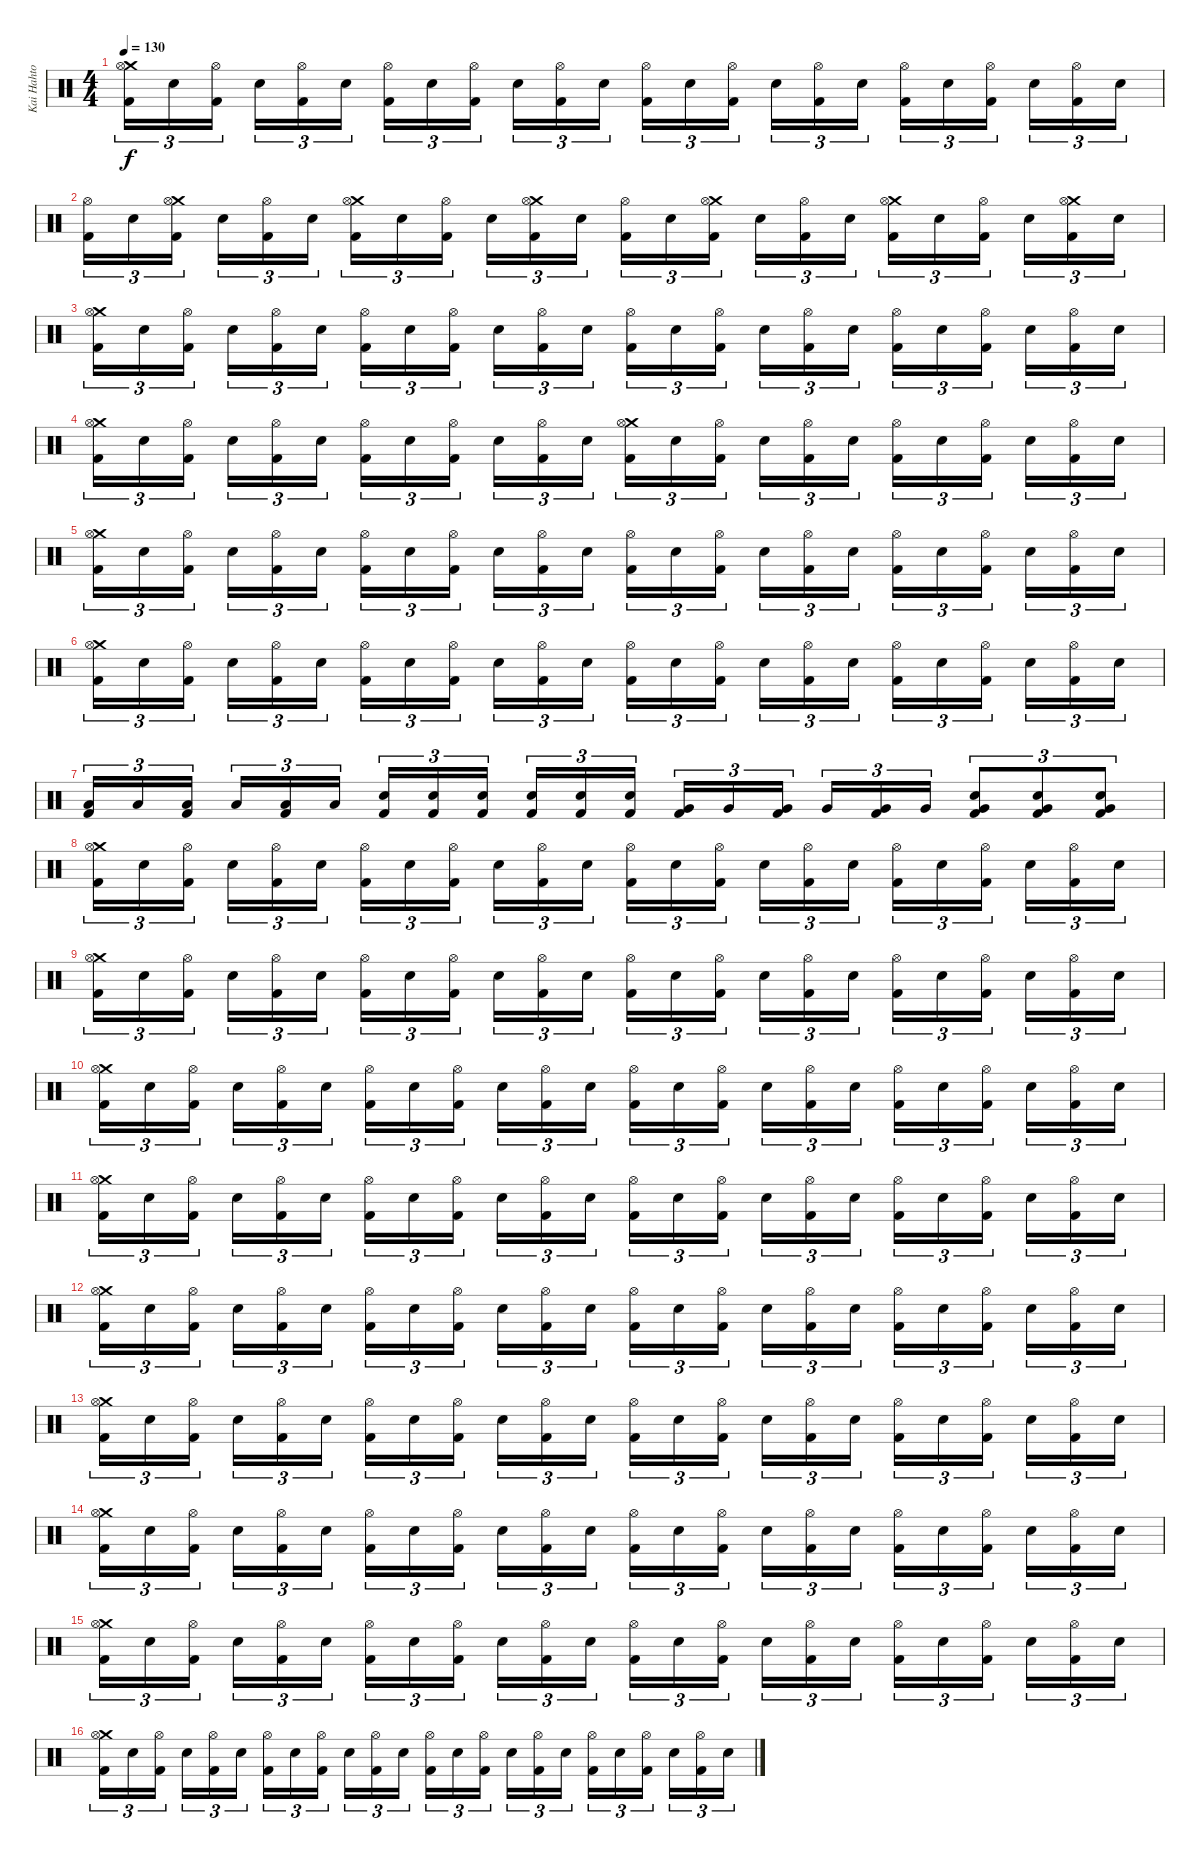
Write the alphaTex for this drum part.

\track ("Kai Hahto" "Kai Hahto") {instrument percussion}
\staff {score}
\articulation defaults
\ts (4 4)
\tempo 130
\clef neutral
\ks c
("Crash medium (hit)" "Hi-Hat (open)" "Kick (hit) 2").16{tu (3 2) dy f} "Snare (hit) 2".16{tu (3 2)} ("Hi-Hat (open)" "Kick (hit) 2").16{tu (3 2) beam splitsecondary} "Snare (hit) 2".16{tu (3 2)} ("Hi-Hat (open)" "Kick (hit) 2").16{tu (3 2)} "Snare (hit) 2".16{tu (3 2)} ("Hi-Hat (open)" "Kick (hit) 2").16{tu (3 2)} "Snare (hit) 2".16{tu (3 2)} ("Hi-Hat (open)" "Kick (hit) 2").16{tu (3 2) beam splitsecondary} "Snare (hit) 2".16{tu (3 2)} ("Hi-Hat (open)" "Kick (hit) 2").16{tu (3 2)} "Snare (hit) 2".16{tu (3 2)} ("Hi-Hat (open)" "Kick (hit) 2").16{tu (3 2)} "Snare (hit) 2".16{tu (3 2)} ("Hi-Hat (open)" "Kick (hit) 2").16{tu (3 2) beam splitsecondary} "Snare (hit) 2".16{tu (3 2)} ("Hi-Hat (open)" "Kick (hit) 2").16{tu (3 2)} "Snare (hit) 2".16{tu (3 2)} ("Hi-Hat (open)" "Kick (hit) 2").16{tu (3 2)} "Snare (hit) 2".16{tu (3 2)} ("Hi-Hat (open)" "Kick (hit) 2").16{tu (3 2) beam splitsecondary} "Snare (hit) 2".16{tu (3 2)} ("Hi-Hat (open)" "Kick (hit) 2").16{tu (3 2)} "Snare (hit) 2".16{tu (3 2)} |
("Hi-Hat (open)" "Kick (hit) 2").16{tu (3 2)} "Snare (hit) 2".16{tu (3 2)} ("Crash medium (hit)" "Hi-Hat (open)" "Kick (hit) 2").16{tu (3 2) beam splitsecondary} "Snare (hit) 2".16{tu (3 2)} ("Hi-Hat (open)" "Kick (hit) 2").16{tu (3 2)} "Snare (hit) 2".16{tu (3 2)} ("Crash medium (hit)" "Hi-Hat (open)" "Kick (hit) 2").16{tu (3 2)} "Snare (hit) 2".16{tu (3 2)} ("Hi-Hat (open)" "Kick (hit) 2").16{tu (3 2) beam splitsecondary} "Snare (hit) 2".16{tu (3 2)} ("Crash medium (hit)" "Hi-Hat (open)" "Kick (hit) 2").16{tu (3 2)} "Snare (hit) 2".16{tu (3 2)} ("Hi-Hat (open)" "Kick (hit) 2").16{tu (3 2)} "Snare (hit) 2".16{tu (3 2)} ("Crash medium (hit)" "Hi-Hat (open)" "Kick (hit) 2").16{tu (3 2) beam splitsecondary} "Snare (hit) 2".16{tu (3 2)} ("Hi-Hat (open)" "Kick (hit) 2").16{tu (3 2)} "Snare (hit) 2".16{tu (3 2)} ("Crash medium (hit)" "Hi-Hat (open)" "Kick (hit) 2").16{tu (3 2)} "Snare (hit) 2".16{tu (3 2)} ("Hi-Hat (open)" "Kick (hit) 2").16{tu (3 2) beam splitsecondary} "Snare (hit) 2".16{tu (3 2)} ("Crash medium (hit)" "Hi-Hat (open)" "Kick (hit) 2").16{tu (3 2)} "Snare (hit) 2".16{tu (3 2)} |
("Crash medium (hit)" "Hi-Hat (open)" "Kick (hit) 2").16{tu (3 2)} "Snare (hit) 2".16{tu (3 2)} ("Hi-Hat (open)" "Kick (hit) 2").16{tu (3 2) beam splitsecondary} "Snare (hit) 2".16{tu (3 2)} ("Hi-Hat (open)" "Kick (hit) 2").16{tu (3 2)} "Snare (hit) 2".16{tu (3 2)} ("Hi-Hat (open)" "Kick (hit) 2").16{tu (3 2)} "Snare (hit) 2".16{tu (3 2)} ("Hi-Hat (open)" "Kick (hit) 2").16{tu (3 2) beam splitsecondary} "Snare (hit) 2".16{tu (3 2)} ("Hi-Hat (open)" "Kick (hit) 2").16{tu (3 2)} "Snare (hit) 2".16{tu (3 2)} ("Hi-Hat (open)" "Kick (hit) 2").16{tu (3 2)} "Snare (hit) 2".16{tu (3 2)} ("Hi-Hat (open)" "Kick (hit) 2").16{tu (3 2) beam splitsecondary} "Snare (hit) 2".16{tu (3 2)} ("Hi-Hat (open)" "Kick (hit) 2").16{tu (3 2)} "Snare (hit) 2".16{tu (3 2)} ("Hi-Hat (open)" "Kick (hit) 2").16{tu (3 2)} "Snare (hit) 2".16{tu (3 2)} ("Hi-Hat (open)" "Kick (hit) 2").16{tu (3 2) beam splitsecondary} "Snare (hit) 2".16{tu (3 2)} ("Hi-Hat (open)" "Kick (hit) 2").16{tu (3 2)} "Snare (hit) 2".16{tu (3 2)} |
("Crash medium (hit)" "Hi-Hat (open)" "Kick (hit) 2").16{tu (3 2)} "Snare (hit) 2".16{tu (3 2)} ("Hi-Hat (open)" "Kick (hit) 2").16{tu (3 2) beam splitsecondary} "Snare (hit) 2".16{tu (3 2)} ("Hi-Hat (open)" "Kick (hit) 2").16{tu (3 2)} "Snare (hit) 2".16{tu (3 2)} ("Hi-Hat (open)" "Kick (hit) 2").16{tu (3 2)} "Snare (hit) 2".16{tu (3 2)} ("Hi-Hat (open)" "Kick (hit) 2").16{tu (3 2) beam splitsecondary} "Snare (hit) 2".16{tu (3 2)} ("Hi-Hat (open)" "Kick (hit) 2").16{tu (3 2)} "Snare (hit) 2".16{tu (3 2)} ("Crash medium (hit)" "Hi-Hat (open)" "Kick (hit) 2").16{tu (3 2)} "Snare (hit) 2".16{tu (3 2)} ("Hi-Hat (open)" "Kick (hit) 2").16{tu (3 2) beam splitsecondary} "Snare (hit) 2".16{tu (3 2)} ("Hi-Hat (open)" "Kick (hit) 2").16{tu (3 2)} "Snare (hit) 2".16{tu (3 2)} ("Hi-Hat (open)" "Kick (hit) 2").16{tu (3 2)} "Snare (hit) 2".16{tu (3 2)} ("Hi-Hat (open)" "Kick (hit) 2").16{tu (3 2) beam splitsecondary} "Snare (hit) 2".16{tu (3 2)} ("Hi-Hat (open)" "Kick (hit) 2").16{tu (3 2)} "Snare (hit) 2".16{tu (3 2)} |
("Crash medium (hit)" "Hi-Hat (open)" "Kick (hit) 2").16{tu (3 2)} "Snare (hit) 2".16{tu (3 2)} ("Hi-Hat (open)" "Kick (hit) 2").16{tu (3 2) beam splitsecondary} "Snare (hit) 2".16{tu (3 2)} ("Hi-Hat (open)" "Kick (hit) 2").16{tu (3 2)} "Snare (hit) 2".16{tu (3 2)} ("Hi-Hat (open)" "Kick (hit) 2").16{tu (3 2)} "Snare (hit) 2".16{tu (3 2)} ("Hi-Hat (open)" "Kick (hit) 2").16{tu (3 2) beam splitsecondary} "Snare (hit) 2".16{tu (3 2)} ("Hi-Hat (open)" "Kick (hit) 2").16{tu (3 2)} "Snare (hit) 2".16{tu (3 2)} ("Hi-Hat (open)" "Kick (hit) 2").16{tu (3 2)} "Snare (hit) 2".16{tu (3 2)} ("Hi-Hat (open)" "Kick (hit) 2").16{tu (3 2) beam splitsecondary} "Snare (hit) 2".16{tu (3 2)} ("Hi-Hat (open)" "Kick (hit) 2").16{tu (3 2)} "Snare (hit) 2".16{tu (3 2)} ("Hi-Hat (open)" "Kick (hit) 2").16{tu (3 2)} "Snare (hit) 2".16{tu (3 2)} ("Hi-Hat (open)" "Kick (hit) 2").16{tu (3 2) beam splitsecondary} "Snare (hit) 2".16{tu (3 2)} ("Hi-Hat (open)" "Kick (hit) 2").16{tu (3 2)} "Snare (hit) 2".16{tu (3 2)} |
("Crash medium (hit)" "Hi-Hat (open)" "Kick (hit) 2").16{tu (3 2)} "Snare (hit) 2".16{tu (3 2)} ("Hi-Hat (open)" "Kick (hit) 2").16{tu (3 2) beam splitsecondary} "Snare (hit) 2".16{tu (3 2)} ("Hi-Hat (open)" "Kick (hit) 2").16{tu (3 2)} "Snare (hit) 2".16{tu (3 2)} ("Hi-Hat (open)" "Kick (hit) 2").16{tu (3 2)} "Snare (hit) 2".16{tu (3 2)} ("Hi-Hat (open)" "Kick (hit) 2").16{tu (3 2) beam splitsecondary} "Snare (hit) 2".16{tu (3 2)} ("Hi-Hat (open)" "Kick (hit) 2").16{tu (3 2)} "Snare (hit) 2".16{tu (3 2)} ("Hi-Hat (open)" "Kick (hit) 2").16{tu (3 2)} "Snare (hit) 2".16{tu (3 2)} ("Hi-Hat (open)" "Kick (hit) 2").16{tu (3 2) beam splitsecondary} "Snare (hit) 2".16{tu (3 2)} ("Hi-Hat (open)" "Kick (hit) 2").16{tu (3 2)} "Snare (hit) 2".16{tu (3 2)} ("Hi-Hat (open)" "Kick (hit) 2").16{tu (3 2)} "Snare (hit) 2".16{tu (3 2)} ("Hi-Hat (open)" "Kick (hit) 2").16{tu (3 2) beam splitsecondary} "Snare (hit) 2".16{tu (3 2)} ("Hi-Hat (open)" "Kick (hit) 2").16{tu (3 2)} "Snare (hit) 2".16{tu (3 2)} |
("Low Tom (hit)" "Kick (hit) 2").16{tu (3 2)} "Low Tom (hit)".16{tu (3 2)} ("Low Tom (hit)" "Kick (hit) 2").16{tu (3 2) beam splitsecondary} "Low Tom (hit)".16{tu (3 2)} ("Low Tom (hit)" "Kick (hit) 2").16{tu (3 2)} "Low Tom (hit)".16{tu (3 2)} ("Snare (hit) 2" "Kick (hit) 2").16{tu (3 2)} ("Snare (hit) 2" "Kick (hit) 2").16{tu (3 2)} ("Snare (hit) 2" "Kick (hit) 2").16{tu (3 2) beam splitsecondary} ("Snare (hit) 2" "Kick (hit) 2").16{tu (3 2)} ("Snare (hit) 2" "Kick (hit) 2").16{tu (3 2)} ("Snare (hit) 2" "Kick (hit) 2").16{tu (3 2)} ("Very Low Tom (hit)" "Kick (hit) 2").16{tu (3 2)} "Very Low Tom (hit)".16{tu (3 2)} ("Very Low Tom (hit)" "Kick (hit) 2").16{tu (3 2) beam splitsecondary} "Very Low Tom (hit)".16{tu (3 2)} ("Very Low Tom (hit)" "Kick (hit) 2").16{tu (3 2)} "Very Low Tom (hit)".16{tu (3 2)} ("Very Low Tom (hit)" "Snare (hit) 2" "Kick (hit) 2").8{tu (3 2)} ("Very Low Tom (hit)" "Snare (hit) 2" "Kick (hit) 2").8{tu (3 2)} ("Very Low Tom (hit)" "Snare (hit) 2" "Kick (hit) 2").8{tu (3 2)} |
("Crash medium (hit)" "Hi-Hat (open)" "Kick (hit) 2").16{tu (3 2)} "Snare (hit) 2".16{tu (3 2)} ("Hi-Hat (open)" "Kick (hit) 2").16{tu (3 2) beam splitsecondary} "Snare (hit) 2".16{tu (3 2)} ("Hi-Hat (open)" "Kick (hit) 2").16{tu (3 2)} "Snare (hit) 2".16{tu (3 2)} ("Hi-Hat (open)" "Kick (hit) 2").16{tu (3 2)} "Snare (hit) 2".16{tu (3 2)} ("Hi-Hat (open)" "Kick (hit) 2").16{tu (3 2) beam splitsecondary} "Snare (hit) 2".16{tu (3 2)} ("Hi-Hat (open)" "Kick (hit) 2").16{tu (3 2)} "Snare (hit) 2".16{tu (3 2)} ("Hi-Hat (open)" "Kick (hit) 2").16{tu (3 2)} "Snare (hit) 2".16{tu (3 2)} ("Hi-Hat (open)" "Kick (hit) 2").16{tu (3 2) beam splitsecondary} "Snare (hit) 2".16{tu (3 2)} ("Hi-Hat (open)" "Kick (hit) 2").16{tu (3 2)} "Snare (hit) 2".16{tu (3 2)} ("Hi-Hat (open)" "Kick (hit) 2").16{tu (3 2)} "Snare (hit) 2".16{tu (3 2)} ("Hi-Hat (open)" "Kick (hit) 2").16{tu (3 2) beam splitsecondary} "Snare (hit) 2".16{tu (3 2)} ("Hi-Hat (open)" "Kick (hit) 2").16{tu (3 2)} "Snare (hit) 2".16{tu (3 2)} |
("Crash medium (hit)" "Hi-Hat (open)" "Kick (hit) 2").16{tu (3 2)} "Snare (hit) 2".16{tu (3 2)} ("Hi-Hat (open)" "Kick (hit) 2").16{tu (3 2) beam splitsecondary} "Snare (hit) 2".16{tu (3 2)} ("Hi-Hat (open)" "Kick (hit) 2").16{tu (3 2)} "Snare (hit) 2".16{tu (3 2)} ("Hi-Hat (open)" "Kick (hit) 2").16{tu (3 2)} "Snare (hit) 2".16{tu (3 2)} ("Hi-Hat (open)" "Kick (hit) 2").16{tu (3 2) beam splitsecondary} "Snare (hit) 2".16{tu (3 2)} ("Hi-Hat (open)" "Kick (hit) 2").16{tu (3 2)} "Snare (hit) 2".16{tu (3 2)} ("Hi-Hat (open)" "Kick (hit) 2").16{tu (3 2)} "Snare (hit) 2".16{tu (3 2)} ("Hi-Hat (open)" "Kick (hit) 2").16{tu (3 2) beam splitsecondary} "Snare (hit) 2".16{tu (3 2)} ("Hi-Hat (open)" "Kick (hit) 2").16{tu (3 2)} "Snare (hit) 2".16{tu (3 2)} ("Hi-Hat (open)" "Kick (hit) 2").16{tu (3 2)} "Snare (hit) 2".16{tu (3 2)} ("Hi-Hat (open)" "Kick (hit) 2").16{tu (3 2) beam splitsecondary} "Snare (hit) 2".16{tu (3 2)} ("Hi-Hat (open)" "Kick (hit) 2").16{tu (3 2)} "Snare (hit) 2".16{tu (3 2)} |
("Crash medium (hit)" "Hi-Hat (open)" "Kick (hit) 2").16{tu (3 2)} "Snare (hit) 2".16{tu (3 2)} ("Hi-Hat (open)" "Kick (hit) 2").16{tu (3 2) beam splitsecondary} "Snare (hit) 2".16{tu (3 2)} ("Hi-Hat (open)" "Kick (hit) 2").16{tu (3 2)} "Snare (hit) 2".16{tu (3 2)} ("Hi-Hat (open)" "Kick (hit) 2").16{tu (3 2)} "Snare (hit) 2".16{tu (3 2)} ("Hi-Hat (open)" "Kick (hit) 2").16{tu (3 2) beam splitsecondary} "Snare (hit) 2".16{tu (3 2)} ("Hi-Hat (open)" "Kick (hit) 2").16{tu (3 2)} "Snare (hit) 2".16{tu (3 2)} ("Hi-Hat (open)" "Kick (hit) 2").16{tu (3 2)} "Snare (hit) 2".16{tu (3 2)} ("Hi-Hat (open)" "Kick (hit) 2").16{tu (3 2) beam splitsecondary} "Snare (hit) 2".16{tu (3 2)} ("Hi-Hat (open)" "Kick (hit) 2").16{tu (3 2)} "Snare (hit) 2".16{tu (3 2)} ("Hi-Hat (open)" "Kick (hit) 2").16{tu (3 2)} "Snare (hit) 2".16{tu (3 2)} ("Hi-Hat (open)" "Kick (hit) 2").16{tu (3 2) beam splitsecondary} "Snare (hit) 2".16{tu (3 2)} ("Hi-Hat (open)" "Kick (hit) 2").16{tu (3 2)} "Snare (hit) 2".16{tu (3 2)} |
("Crash medium (hit)" "Hi-Hat (open)" "Kick (hit) 2").16{tu (3 2)} "Snare (hit) 2".16{tu (3 2)} ("Hi-Hat (open)" "Kick (hit) 2").16{tu (3 2) beam splitsecondary} "Snare (hit) 2".16{tu (3 2)} ("Hi-Hat (open)" "Kick (hit) 2").16{tu (3 2)} "Snare (hit) 2".16{tu (3 2)} ("Hi-Hat (open)" "Kick (hit) 2").16{tu (3 2)} "Snare (hit) 2".16{tu (3 2)} ("Hi-Hat (open)" "Kick (hit) 2").16{tu (3 2) beam splitsecondary} "Snare (hit) 2".16{tu (3 2)} ("Hi-Hat (open)" "Kick (hit) 2").16{tu (3 2)} "Snare (hit) 2".16{tu (3 2)} ("Hi-Hat (open)" "Kick (hit) 2").16{tu (3 2)} "Snare (hit) 2".16{tu (3 2)} ("Hi-Hat (open)" "Kick (hit) 2").16{tu (3 2) beam splitsecondary} "Snare (hit) 2".16{tu (3 2)} ("Hi-Hat (open)" "Kick (hit) 2").16{tu (3 2)} "Snare (hit) 2".16{tu (3 2)} ("Hi-Hat (open)" "Kick (hit) 2").16{tu (3 2)} "Snare (hit) 2".16{tu (3 2)} ("Hi-Hat (open)" "Kick (hit) 2").16{tu (3 2) beam splitsecondary} "Snare (hit) 2".16{tu (3 2)} ("Hi-Hat (open)" "Kick (hit) 2").16{tu (3 2)} "Snare (hit) 2".16{tu (3 2)} |
("Crash medium (hit)" "Hi-Hat (open)" "Kick (hit) 2").16{tu (3 2)} "Snare (hit) 2".16{tu (3 2)} ("Hi-Hat (open)" "Kick (hit) 2").16{tu (3 2) beam splitsecondary} "Snare (hit) 2".16{tu (3 2)} ("Hi-Hat (open)" "Kick (hit) 2").16{tu (3 2)} "Snare (hit) 2".16{tu (3 2)} ("Hi-Hat (open)" "Kick (hit) 2").16{tu (3 2)} "Snare (hit) 2".16{tu (3 2)} ("Hi-Hat (open)" "Kick (hit) 2").16{tu (3 2) beam splitsecondary} "Snare (hit) 2".16{tu (3 2)} ("Hi-Hat (open)" "Kick (hit) 2").16{tu (3 2)} "Snare (hit) 2".16{tu (3 2)} ("Hi-Hat (open)" "Kick (hit) 2").16{tu (3 2)} "Snare (hit) 2".16{tu (3 2)} ("Hi-Hat (open)" "Kick (hit) 2").16{tu (3 2) beam splitsecondary} "Snare (hit) 2".16{tu (3 2)} ("Hi-Hat (open)" "Kick (hit) 2").16{tu (3 2)} "Snare (hit) 2".16{tu (3 2)} ("Hi-Hat (open)" "Kick (hit) 2").16{tu (3 2)} "Snare (hit) 2".16{tu (3 2)} ("Hi-Hat (open)" "Kick (hit) 2").16{tu (3 2) beam splitsecondary} "Snare (hit) 2".16{tu (3 2)} ("Hi-Hat (open)" "Kick (hit) 2").16{tu (3 2)} "Snare (hit) 2".16{tu (3 2)} |
("Crash medium (hit)" "Hi-Hat (open)" "Kick (hit) 2").16{tu (3 2)} "Snare (hit) 2".16{tu (3 2)} ("Hi-Hat (open)" "Kick (hit) 2").16{tu (3 2) beam splitsecondary} "Snare (hit) 2".16{tu (3 2)} ("Hi-Hat (open)" "Kick (hit) 2").16{tu (3 2)} "Snare (hit) 2".16{tu (3 2)} ("Hi-Hat (open)" "Kick (hit) 2").16{tu (3 2)} "Snare (hit) 2".16{tu (3 2)} ("Hi-Hat (open)" "Kick (hit) 2").16{tu (3 2) beam splitsecondary} "Snare (hit) 2".16{tu (3 2)} ("Hi-Hat (open)" "Kick (hit) 2").16{tu (3 2)} "Snare (hit) 2".16{tu (3 2)} ("Hi-Hat (open)" "Kick (hit) 2").16{tu (3 2)} "Snare (hit) 2".16{tu (3 2)} ("Hi-Hat (open)" "Kick (hit) 2").16{tu (3 2) beam splitsecondary} "Snare (hit) 2".16{tu (3 2)} ("Hi-Hat (open)" "Kick (hit) 2").16{tu (3 2)} "Snare (hit) 2".16{tu (3 2)} ("Hi-Hat (open)" "Kick (hit) 2").16{tu (3 2)} "Snare (hit) 2".16{tu (3 2)} ("Hi-Hat (open)" "Kick (hit) 2").16{tu (3 2) beam splitsecondary} "Snare (hit) 2".16{tu (3 2)} ("Hi-Hat (open)" "Kick (hit) 2").16{tu (3 2)} "Snare (hit) 2".16{tu (3 2)} |
("Crash medium (hit)" "Hi-Hat (open)" "Kick (hit) 2").16{tu (3 2)} "Snare (hit) 2".16{tu (3 2)} ("Hi-Hat (open)" "Kick (hit) 2").16{tu (3 2) beam splitsecondary} "Snare (hit) 2".16{tu (3 2)} ("Hi-Hat (open)" "Kick (hit) 2").16{tu (3 2)} "Snare (hit) 2".16{tu (3 2)} ("Hi-Hat (open)" "Kick (hit) 2").16{tu (3 2)} "Snare (hit) 2".16{tu (3 2)} ("Hi-Hat (open)" "Kick (hit) 2").16{tu (3 2) beam splitsecondary} "Snare (hit) 2".16{tu (3 2)} ("Hi-Hat (open)" "Kick (hit) 2").16{tu (3 2)} "Snare (hit) 2".16{tu (3 2)} ("Hi-Hat (open)" "Kick (hit) 2").16{tu (3 2)} "Snare (hit) 2".16{tu (3 2)} ("Hi-Hat (open)" "Kick (hit) 2").16{tu (3 2) beam splitsecondary} "Snare (hit) 2".16{tu (3 2)} ("Hi-Hat (open)" "Kick (hit) 2").16{tu (3 2)} "Snare (hit) 2".16{tu (3 2)} ("Hi-Hat (open)" "Kick (hit) 2").16{tu (3 2)} "Snare (hit) 2".16{tu (3 2)} ("Hi-Hat (open)" "Kick (hit) 2").16{tu (3 2) beam splitsecondary} "Snare (hit) 2".16{tu (3 2)} ("Hi-Hat (open)" "Kick (hit) 2").16{tu (3 2)} "Snare (hit) 2".16{tu (3 2)} |
("Crash medium (hit)" "Hi-Hat (open)" "Kick (hit) 2").16{tu (3 2)} "Snare (hit) 2".16{tu (3 2)} ("Hi-Hat (open)" "Kick (hit) 2").16{tu (3 2) beam splitsecondary} "Snare (hit) 2".16{tu (3 2)} ("Hi-Hat (open)" "Kick (hit) 2").16{tu (3 2)} "Snare (hit) 2".16{tu (3 2)} ("Hi-Hat (open)" "Kick (hit) 2").16{tu (3 2)} "Snare (hit) 2".16{tu (3 2)} ("Hi-Hat (open)" "Kick (hit) 2").16{tu (3 2) beam splitsecondary} "Snare (hit) 2".16{tu (3 2)} ("Hi-Hat (open)" "Kick (hit) 2").16{tu (3 2)} "Snare (hit) 2".16{tu (3 2)} ("Hi-Hat (open)" "Kick (hit) 2").16{tu (3 2)} "Snare (hit) 2".16{tu (3 2)} ("Hi-Hat (open)" "Kick (hit) 2").16{tu (3 2) beam splitsecondary} "Snare (hit) 2".16{tu (3 2)} ("Hi-Hat (open)" "Kick (hit) 2").16{tu (3 2)} "Snare (hit) 2".16{tu (3 2)} ("Hi-Hat (open)" "Kick (hit) 2").16{tu (3 2)} "Snare (hit) 2".16{tu (3 2)} ("Hi-Hat (open)" "Kick (hit) 2").16{tu (3 2) beam splitsecondary} "Snare (hit) 2".16{tu (3 2)} ("Hi-Hat (open)" "Kick (hit) 2").16{tu (3 2)} "Snare (hit) 2".16{tu (3 2)} |
("Crash medium (hit)" "Hi-Hat (open)" "Kick (hit) 2").16{tu (3 2)} "Snare (hit) 2".16{tu (3 2)} ("Hi-Hat (open)" "Kick (hit) 2").16{tu (3 2) beam splitsecondary} "Snare (hit) 2".16{tu (3 2)} ("Hi-Hat (open)" "Kick (hit) 2").16{tu (3 2)} "Snare (hit) 2".16{tu (3 2)} ("Hi-Hat (open)" "Kick (hit) 2").16{tu (3 2)} "Snare (hit) 2".16{tu (3 2)} ("Hi-Hat (open)" "Kick (hit) 2").16{tu (3 2) beam splitsecondary} "Snare (hit) 2".16{tu (3 2)} ("Hi-Hat (open)" "Kick (hit) 2").16{tu (3 2)} "Snare (hit) 2".16{tu (3 2)} ("Hi-Hat (open)" "Kick (hit) 2").16{tu (3 2)} "Snare (hit) 2".16{tu (3 2)} ("Hi-Hat (open)" "Kick (hit) 2").16{tu (3 2) beam splitsecondary} "Snare (hit) 2".16{tu (3 2)} ("Hi-Hat (open)" "Kick (hit) 2").16{tu (3 2)} "Snare (hit) 2".16{tu (3 2)} ("Hi-Hat (open)" "Kick (hit) 2").16{tu (3 2)} "Snare (hit) 2".16{tu (3 2)} ("Hi-Hat (open)" "Kick (hit) 2").16{tu (3 2) beam splitsecondary} "Snare (hit) 2".16{tu (3 2)} ("Hi-Hat (open)" "Kick (hit) 2").16{tu (3 2)} "Snare (hit) 2".16{tu (3 2)}
